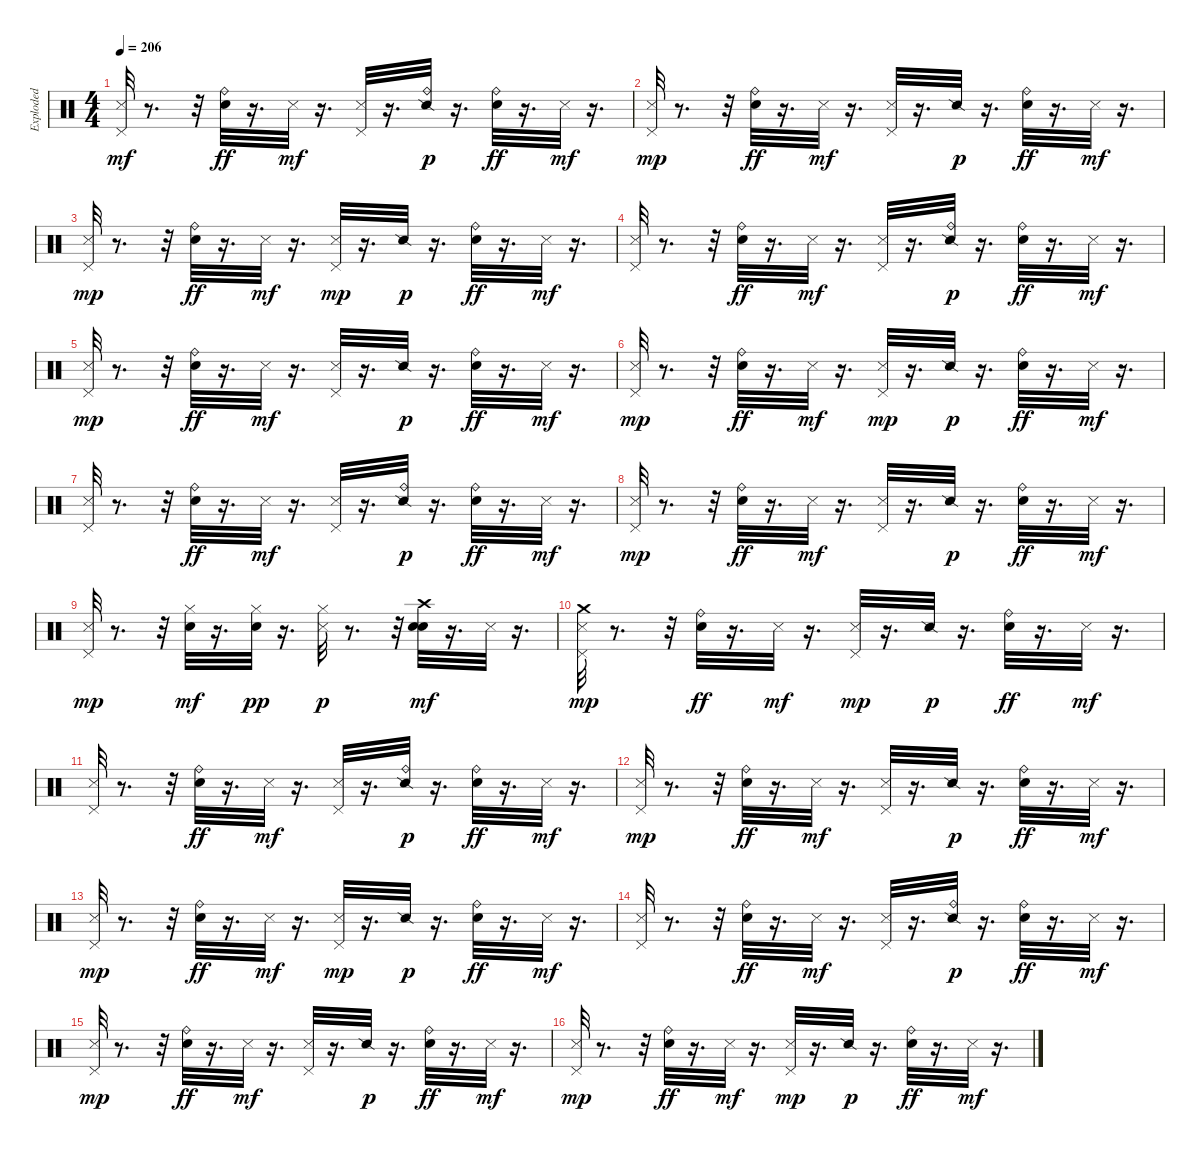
\track ("Exploded" "Exploded") {instrument percussion}
\staff {score}
\articulation defaults
\ts (4 4)
\tempo 206
\clef neutral
\ks c
("Metronome (hit)" "Pedal Hi-Hat (hit)").32{dy mf} r.8{d} r.32 ("Electric Snare (hit)" "Ride (bell)").32{dy ff} r.16{d} "Metronome (hit)".32{dy mf} r.16{d} ("Metronome (hit)" "Pedal Hi-Hat (hit)").32 r.16{d} ("Snare (side stick) 2" "Ride (bell)").32{dy p} r.16{d} ("Electric Snare (hit)" "Ride (bell)").32{dy ff} r.16{d} "Metronome (hit)".32{dy mf} r.16{d} |
("Metronome (hit)" "Pedal Hi-Hat (hit)").32{dy mp} r.8{d} r.32 ("Electric Snare (hit)" "Ride (bell)").32{dy ff} r.16{d} "Metronome (hit)".32{dy mf} r.16{d} ("Metronome (hit)" "Pedal Hi-Hat (hit)").32 r.16{d} "Snare (side stick) 2".32{dy p} r.16{d} ("Electric Snare (hit)" "Ride (bell)").32{dy ff} r.16{d} "Metronome (hit)".32{dy mf} r.16{d} |
("Metronome (hit)" "Pedal Hi-Hat (hit)").32{dy mp} r.8{d} r.32 ("Electric Snare (hit)" "Ride (bell)").32{dy ff} r.16{d} "Metronome (hit)".32{dy mf} r.16{d} ("Metronome (hit)" "Pedal Hi-Hat (hit)").32{dy mp} r.16{d} "Snare (side stick) 2".32{dy p} r.16{d} ("Electric Snare (hit)" "Ride (bell)").32{dy ff} r.16{d} "Metronome (hit)".32{dy mf} r.16{d} |
("Metronome (hit)" "Pedal Hi-Hat (hit)").32 r.8{d} r.32 ("Electric Snare (hit)" "Ride (bell)").32{dy ff} r.16{d} "Metronome (hit)".32{dy mf} r.16{d} ("Metronome (hit)" "Pedal Hi-Hat (hit)").32 r.16{d} ("Snare (side stick) 2" "Ride (bell)").32{dy p} r.16{d} ("Electric Snare (hit)" "Ride (bell)").32{dy ff} r.16{d} "Metronome (hit)".32{dy mf} r.16{d} |
("Metronome (hit)" "Pedal Hi-Hat (hit)").32{dy mp} r.8{d} r.32 ("Electric Snare (hit)" "Ride (bell)").32{dy ff} r.16{d} "Metronome (hit)".32{dy mf} r.16{d} ("Metronome (hit)" "Pedal Hi-Hat (hit)").32 r.16{d} "Snare (side stick) 2".32{dy p} r.16{d} ("Electric Snare (hit)" "Ride (bell)").32{dy ff} r.16{d} "Metronome (hit)".32{dy mf} r.16{d} |
("Metronome (hit)" "Pedal Hi-Hat (hit)").32{dy mp} r.8{d} r.32 ("Electric Snare (hit)" "Ride (bell)").32{dy ff} r.16{d} "Metronome (hit)".32{dy mf} r.16{d} ("Metronome (hit)" "Pedal Hi-Hat (hit)").32{dy mp} r.16{d} "Snare (side stick) 2".32{dy p} r.16{d} ("Electric Snare (hit)" "Ride (bell)").32{dy ff} r.16{d} "Metronome (hit)".32{dy mf} r.16{d} |
("Metronome (hit)" "Pedal Hi-Hat (hit)").32 r.8{d} r.32 ("Electric Snare (hit)" "Ride (bell)").32{dy ff} r.16{d} "Metronome (hit)".32{dy mf} r.16{d} ("Metronome (hit)" "Pedal Hi-Hat (hit)").32 r.16{d} ("Snare (side stick) 2" "Ride (bell)").32{dy p} r.16{d} ("Electric Snare (hit)" "Ride (bell)").32{dy ff} r.16{d} "Metronome (hit)".32{dy mf} r.16{d} |
("Metronome (hit)" "Pedal Hi-Hat (hit)").32{dy mp} r.8{d} r.32 ("Electric Snare (hit)" "Ride (bell)").32{dy ff} r.16{d} "Metronome (hit)".32{dy mf} r.16{d} ("Metronome (hit)" "Pedal Hi-Hat (hit)").32 r.16{d} "Snare (side stick) 2".32{dy p} r.16{d} ("Electric Snare (hit)" "Ride (bell)").32{dy ff} r.16{d} "Metronome (hit)".32{dy mf} r.16{d} |
("Metronome (hit)" "Pedal Hi-Hat (hit)").32{dy mp} r.8{d} r.32 ("Electric Snare (hit)" "Hi-Hat (closed)").32{dy mf} r.16{d} ("Electric Snare (hit)" "Hi-Hat (closed)").32{dy pp} r.16{d} ("Metronome (hit)" "Hi-Hat (closed)").32{dy p} r.8{d} r.32 ("Metronome (bell)" "Electric Snare (hit)" "Crash high (hit)").32{dy mf} r.16{d} "Metronome (hit)".32 r.16{d} |
("Crash medium (hit)" "Metronome (hit)" "Pedal Hi-Hat (hit)").32{dy mp} r.8{d} r.32 ("Electric Snare (hit)" "Ride (bell)").32{dy ff} r.16{d} "Metronome (hit)".32{dy mf} r.16{d} ("Metronome (hit)" "Pedal Hi-Hat (hit)").32{dy mp} r.16{d} "Snare (side stick) 2".32{dy p} r.16{d} ("Electric Snare (hit)" "Ride (bell)").32{dy ff} r.16{d} "Metronome (hit)".32{dy mf} r.16{d} |
("Metronome (hit)" "Pedal Hi-Hat (hit)").32 r.8{d} r.32 ("Electric Snare (hit)" "Ride (bell)").32{dy ff} r.16{d} "Metronome (hit)".32{dy mf} r.16{d} ("Metronome (hit)" "Pedal Hi-Hat (hit)").32 r.16{d} ("Snare (side stick) 2" "Ride (bell)").32{dy p} r.16{d} ("Electric Snare (hit)" "Ride (bell)").32{dy ff} r.16{d} "Metronome (hit)".32{dy mf} r.16{d} |
("Metronome (hit)" "Pedal Hi-Hat (hit)").32{dy mp} r.8{d} r.32 ("Electric Snare (hit)" "Ride (bell)").32{dy ff} r.16{d} "Metronome (hit)".32{dy mf} r.16{d} ("Metronome (hit)" "Pedal Hi-Hat (hit)").32 r.16{d} "Snare (side stick) 2".32{dy p} r.16{d} ("Electric Snare (hit)" "Ride (bell)").32{dy ff} r.16{d} "Metronome (hit)".32{dy mf} r.16{d} |
("Metronome (hit)" "Pedal Hi-Hat (hit)").32{dy mp} r.8{d} r.32 ("Electric Snare (hit)" "Ride (bell)").32{dy ff} r.16{d} "Metronome (hit)".32{dy mf} r.16{d} ("Metronome (hit)" "Pedal Hi-Hat (hit)").32{dy mp} r.16{d} "Snare (side stick) 2".32{dy p} r.16{d} ("Electric Snare (hit)" "Ride (bell)").32{dy ff} r.16{d} "Metronome (hit)".32{dy mf} r.16{d} |
("Metronome (hit)" "Pedal Hi-Hat (hit)").32 r.8{d} r.32 ("Electric Snare (hit)" "Ride (bell)").32{dy ff} r.16{d} "Metronome (hit)".32{dy mf} r.16{d} ("Metronome (hit)" "Pedal Hi-Hat (hit)").32 r.16{d} ("Snare (side stick) 2" "Ride (bell)").32{dy p} r.16{d} ("Electric Snare (hit)" "Ride (bell)").32{dy ff} r.16{d} "Metronome (hit)".32{dy mf} r.16{d} |
("Metronome (hit)" "Pedal Hi-Hat (hit)").32{dy mp} r.8{d} r.32 ("Electric Snare (hit)" "Ride (bell)").32{dy ff} r.16{d} "Metronome (hit)".32{dy mf} r.16{d} ("Metronome (hit)" "Pedal Hi-Hat (hit)").32 r.16{d} "Snare (side stick) 2".32{dy p} r.16{d} ("Electric Snare (hit)" "Ride (bell)").32{dy ff} r.16{d} "Metronome (hit)".32{dy mf} r.16{d} |
("Metronome (hit)" "Pedal Hi-Hat (hit)").32{dy mp} r.8{d} r.32 ("Electric Snare (hit)" "Ride (bell)").32{dy ff} r.16{d} "Metronome (hit)".32{dy mf} r.16{d} ("Metronome (hit)" "Pedal Hi-Hat (hit)").32{dy mp} r.16{d} "Snare (side stick) 2".32{dy p} r.16{d} ("Electric Snare (hit)" "Ride (bell)").32{dy ff} r.16{d} "Metronome (hit)".32{dy mf} r.16{d}
